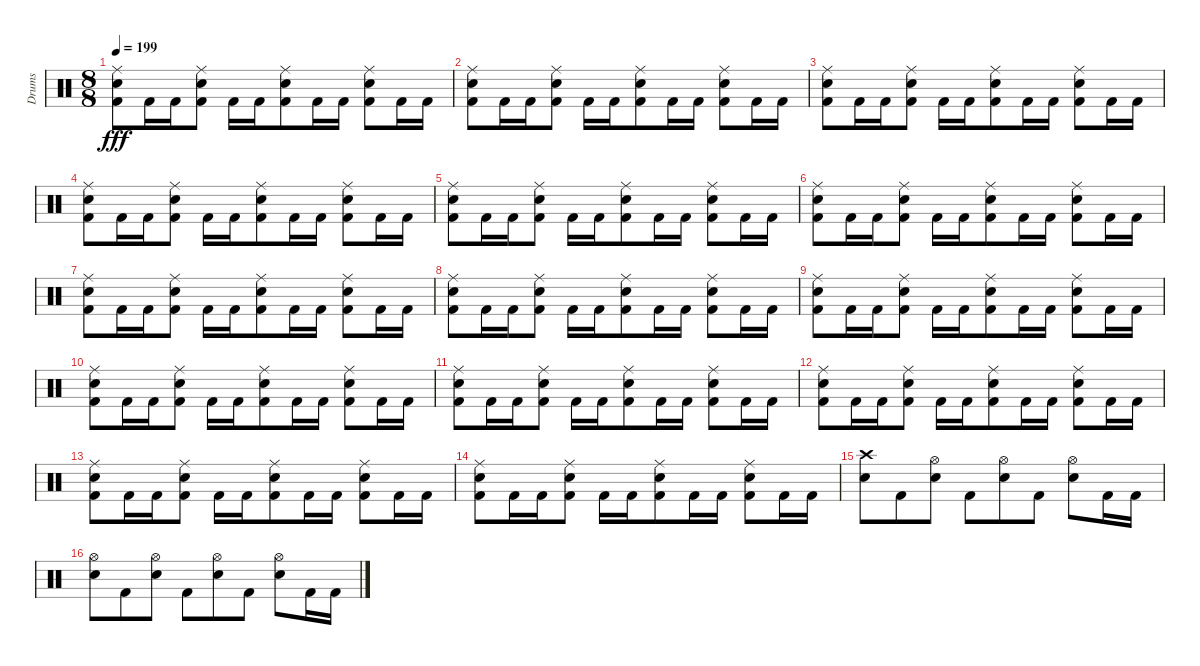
\track ("Drums" "Drums") {instrument percussion}
\staff {score}
\articulation defaults
\ts (8 8)
\tempo 199
\clef neutral
\ks c
("Ride (middle)" "Snare (hit) 2" "Kick (hit) 2").8{dy fff} "Kick (hit) 2".16 "Kick (hit) 2".16 ("Ride (middle)" "Snare (hit) 2" "Kick (hit) 2").8 "Kick (hit) 2".16 "Kick (hit) 2".16 ("Ride (middle)" "Snare (hit) 2" "Kick (hit) 2").8 "Kick (hit) 2".16 "Kick (hit) 2".16 ("Ride (middle)" "Snare (hit) 2" "Kick (hit) 2").8 "Kick (hit) 2".16 "Kick (hit) 2".16 |
("Ride (middle)" "Snare (hit) 2" "Kick (hit) 2").8 "Kick (hit) 2".16 "Kick (hit) 2".16 ("Ride (middle)" "Snare (hit) 2" "Kick (hit) 2").8 "Kick (hit) 2".16 "Kick (hit) 2".16 ("Ride (middle)" "Snare (hit) 2" "Kick (hit) 2").8 "Kick (hit) 2".16 "Kick (hit) 2".16 ("Ride (middle)" "Snare (hit) 2" "Kick (hit) 2").8 "Kick (hit) 2".16 "Kick (hit) 2".16 |
("Ride (middle)" "Snare (hit) 2" "Kick (hit) 2").8 "Kick (hit) 2".16 "Kick (hit) 2".16 ("Ride (middle)" "Snare (hit) 2" "Kick (hit) 2").8 "Kick (hit) 2".16 "Kick (hit) 2".16 ("Ride (middle)" "Snare (hit) 2" "Kick (hit) 2").8 "Kick (hit) 2".16 "Kick (hit) 2".16 ("Ride (middle)" "Snare (hit) 2" "Kick (hit) 2").8 "Kick (hit) 2".16 "Kick (hit) 2".16 |
("Ride (middle)" "Snare (hit) 2" "Kick (hit) 2").8 "Kick (hit) 2".16 "Kick (hit) 2".16 ("Ride (middle)" "Snare (hit) 2" "Kick (hit) 2").8 "Kick (hit) 2".16 "Kick (hit) 2".16 ("Ride (middle)" "Snare (hit) 2" "Kick (hit) 2").8 "Kick (hit) 2".16 "Kick (hit) 2".16 ("Ride (middle)" "Snare (hit) 2" "Kick (hit) 2").8 "Kick (hit) 2".16 "Kick (hit) 2".16 |
("Ride (middle)" "Snare (hit) 2" "Kick (hit) 2").8 "Kick (hit) 2".16 "Kick (hit) 2".16 ("Ride (middle)" "Snare (hit) 2" "Kick (hit) 2").8 "Kick (hit) 2".16 "Kick (hit) 2".16 ("Ride (middle)" "Snare (hit) 2" "Kick (hit) 2").8 "Kick (hit) 2".16 "Kick (hit) 2".16 ("Ride (middle)" "Snare (hit) 2" "Kick (hit) 2").8 "Kick (hit) 2".16 "Kick (hit) 2".16 |
("Ride (middle)" "Snare (hit) 2" "Kick (hit) 2").8 "Kick (hit) 2".16 "Kick (hit) 2".16 ("Ride (middle)" "Snare (hit) 2" "Kick (hit) 2").8 "Kick (hit) 2".16 "Kick (hit) 2".16 ("Ride (middle)" "Snare (hit) 2" "Kick (hit) 2").8 "Kick (hit) 2".16 "Kick (hit) 2".16 ("Ride (middle)" "Snare (hit) 2" "Kick (hit) 2").8 "Kick (hit) 2".16 "Kick (hit) 2".16 |
("Ride (middle)" "Snare (hit) 2" "Kick (hit) 2").8 "Kick (hit) 2".16 "Kick (hit) 2".16 ("Ride (middle)" "Snare (hit) 2" "Kick (hit) 2").8 "Kick (hit) 2".16 "Kick (hit) 2".16 ("Ride (middle)" "Snare (hit) 2" "Kick (hit) 2").8 "Kick (hit) 2".16 "Kick (hit) 2".16 ("Ride (middle)" "Snare (hit) 2" "Kick (hit) 2").8 "Kick (hit) 2".16 "Kick (hit) 2".16 |
("Ride (middle)" "Snare (hit) 2" "Kick (hit) 2").8 "Kick (hit) 2".16 "Kick (hit) 2".16 ("Ride (middle)" "Snare (hit) 2" "Kick (hit) 2").8 "Kick (hit) 2".16 "Kick (hit) 2".16 ("Ride (middle)" "Snare (hit) 2" "Kick (hit) 2").8 "Kick (hit) 2".16 "Kick (hit) 2".16 ("Ride (middle)" "Snare (hit) 2" "Kick (hit) 2").8 "Kick (hit) 2".16 "Kick (hit) 2".16 |
("Ride (middle)" "Snare (hit) 2" "Kick (hit) 2").8 "Kick (hit) 2".16 "Kick (hit) 2".16 ("Ride (middle)" "Snare (hit) 2" "Kick (hit) 2").8 "Kick (hit) 2".16 "Kick (hit) 2".16 ("Ride (middle)" "Snare (hit) 2" "Kick (hit) 2").8 "Kick (hit) 2".16 "Kick (hit) 2".16 ("Ride (middle)" "Snare (hit) 2" "Kick (hit) 2").8 "Kick (hit) 2".16 "Kick (hit) 2".16 |
("Ride (middle)" "Snare (hit) 2" "Kick (hit) 2").8 "Kick (hit) 2".16 "Kick (hit) 2".16 ("Ride (middle)" "Snare (hit) 2" "Kick (hit) 2").8 "Kick (hit) 2".16 "Kick (hit) 2".16 ("Ride (middle)" "Snare (hit) 2" "Kick (hit) 2").8 "Kick (hit) 2".16 "Kick (hit) 2".16 ("Ride (middle)" "Snare (hit) 2" "Kick (hit) 2").8 "Kick (hit) 2".16 "Kick (hit) 2".16 |
("Ride (middle)" "Snare (hit) 2" "Kick (hit) 2").8 "Kick (hit) 2".16 "Kick (hit) 2".16 ("Ride (middle)" "Snare (hit) 2" "Kick (hit) 2").8 "Kick (hit) 2".16 "Kick (hit) 2".16 ("Ride (middle)" "Snare (hit) 2" "Kick (hit) 2").8 "Kick (hit) 2".16 "Kick (hit) 2".16 ("Ride (middle)" "Snare (hit) 2" "Kick (hit) 2").8 "Kick (hit) 2".16 "Kick (hit) 2".16 |
("Ride (middle)" "Snare (hit) 2" "Kick (hit) 2").8 "Kick (hit) 2".16 "Kick (hit) 2".16 ("Ride (middle)" "Snare (hit) 2" "Kick (hit) 2").8 "Kick (hit) 2".16 "Kick (hit) 2".16 ("Ride (middle)" "Snare (hit) 2" "Kick (hit) 2").8 "Kick (hit) 2".16 "Kick (hit) 2".16 ("Ride (middle)" "Snare (hit) 2" "Kick (hit) 2").8 "Kick (hit) 2".16 "Kick (hit) 2".16 |
("Ride (middle)" "Snare (hit) 2" "Kick (hit) 2").8 "Kick (hit) 2".16 "Kick (hit) 2".16 ("Ride (middle)" "Snare (hit) 2" "Kick (hit) 2").8 "Kick (hit) 2".16 "Kick (hit) 2".16 ("Ride (middle)" "Snare (hit) 2" "Kick (hit) 2").8 "Kick (hit) 2".16 "Kick (hit) 2".16 ("Ride (middle)" "Snare (hit) 2" "Kick (hit) 2").8 "Kick (hit) 2".16 "Kick (hit) 2".16 |
("Ride (middle)" "Snare (hit) 2" "Kick (hit) 2").8 "Kick (hit) 2".16 "Kick (hit) 2".16 ("Ride (middle)" "Snare (hit) 2" "Kick (hit) 2").8 "Kick (hit) 2".16 "Kick (hit) 2".16 ("Ride (middle)" "Snare (hit) 2" "Kick (hit) 2").8 "Kick (hit) 2".16 "Kick (hit) 2".16 ("Ride (middle)" "Snare (hit) 2" "Kick (hit) 2").8 "Kick (hit) 2".16 "Kick (hit) 2".16 |
("Crash high (hit)" "Snare (hit) 2").8 "Kick (hit) 2".8 ("Hi-Hat (open)" "Snare (hit) 2").8 "Kick (hit) 2".8 ("Hi-Hat (open)" "Snare (hit) 2").8 "Kick (hit) 2".8 ("Hi-Hat (open)" "Snare (hit) 2").8 "Kick (hit) 2".16 "Kick (hit) 2".16 |
("Hi-Hat (open)" "Snare (hit) 2").8 "Kick (hit) 2".8 ("Hi-Hat (open)" "Snare (hit) 2").8 "Kick (hit) 2".8 ("Hi-Hat (open)" "Snare (hit) 2").8 "Kick (hit) 2".8 ("Hi-Hat (open)" "Snare (hit) 2").8 "Kick (hit) 2".16 "Kick (hit) 2".16
